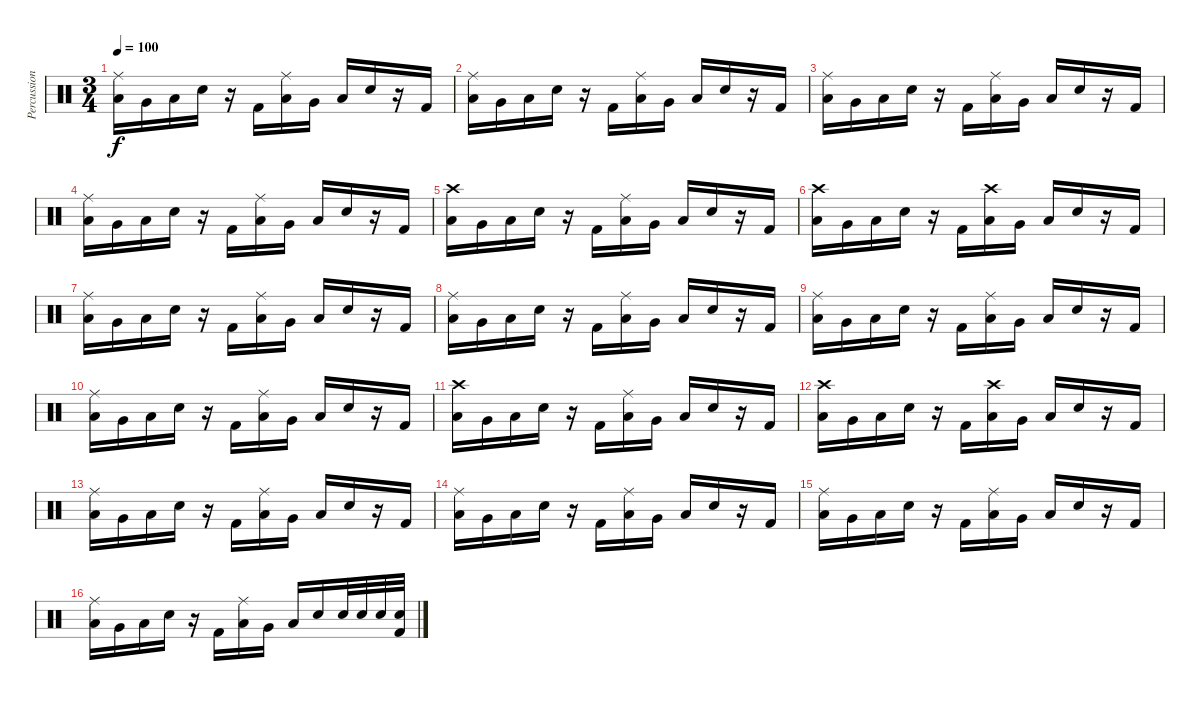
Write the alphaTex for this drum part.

\track ("Percussion" "Percussion") {instrument percussion}
\staff {score}
\articulation defaults
\ts (3 4)
\tempo 100
\clef neutral
\ks c
("Ride (middle)" "Low Floor Tom (hit)").16{dy f} "Very Low Tom (hit)".16 "Low Floor Tom (hit)".16 "Snare (hit) 2".16 r.16 "Kick (hit) 2".16 ("Ride (middle)" "Low Floor Tom (hit)").16 "Very Low Tom (hit)".16 "Low Floor Tom (hit)".16 "Snare (hit) 2".16 r.16 "Kick (hit) 2".16 |
("Ride (middle)" "Low Floor Tom (hit)").16 "Very Low Tom (hit)".16 "Low Floor Tom (hit)".16 "Snare (hit) 2".16 r.16 "Kick (hit) 2".16 ("Ride (middle)" "Low Floor Tom (hit)").16 "Very Low Tom (hit)".16 "Low Floor Tom (hit)".16 "Snare (hit) 2".16 r.16 "Kick (hit) 2".16 |
("Ride (middle)" "Low Floor Tom (hit)").16 "Very Low Tom (hit)".16 "Low Floor Tom (hit)".16 "Snare (hit) 2".16 r.16 "Kick (hit) 2".16 ("Ride (middle)" "Low Floor Tom (hit)").16 "Very Low Tom (hit)".16 "Low Floor Tom (hit)".16 "Snare (hit) 2".16 r.16 "Kick (hit) 2".16 |
("Ride (middle)" "Low Floor Tom (hit)").16 "Very Low Tom (hit)".16 "Low Floor Tom (hit)".16 "Snare (hit) 2".16 r.16 "Kick (hit) 2".16 ("Ride (middle)" "Low Floor Tom (hit)").16 "Very Low Tom (hit)".16 "Low Floor Tom (hit)".16 "Snare (hit) 2".16 r.16 "Kick (hit) 2".16 |
("Crash high (hit)" "Low Floor Tom (hit)").16 "Very Low Tom (hit)".16 "Low Floor Tom (hit)".16 "Snare (hit) 2".16 r.16 "Kick (hit) 2".16 ("Ride (middle)" "Low Floor Tom (hit)").16 "Very Low Tom (hit)".16 "Low Floor Tom (hit)".16 "Snare (hit) 2".16 r.16 "Kick (hit) 2".16 |
("Crash high (hit)" "Low Floor Tom (hit)").16 "Very Low Tom (hit)".16 "Low Floor Tom (hit)".16 "Snare (hit) 2".16 r.16 "Kick (hit) 2".16 ("Crash high (hit)" "Low Floor Tom (hit)").16 "Very Low Tom (hit)".16 "Low Floor Tom (hit)".16 "Snare (hit) 2".16 r.16 "Kick (hit) 2".16 |
("Ride (middle)" "Low Floor Tom (hit)").16 "Very Low Tom (hit)".16 "Low Floor Tom (hit)".16 "Snare (hit) 2".16 r.16 "Kick (hit) 2".16 ("Ride (middle)" "Low Floor Tom (hit)").16 "Very Low Tom (hit)".16 "Low Floor Tom (hit)".16 "Snare (hit) 2".16 r.16 "Kick (hit) 2".16 |
("Ride (middle)" "Low Floor Tom (hit)").16 "Very Low Tom (hit)".16 "Low Floor Tom (hit)".16 "Snare (hit) 2".16 r.16 "Kick (hit) 2".16 ("Ride (middle)" "Low Floor Tom (hit)").16 "Very Low Tom (hit)".16 "Low Floor Tom (hit)".16 "Snare (hit) 2".16 r.16 "Kick (hit) 2".16 |
("Ride (middle)" "Low Floor Tom (hit)").16 "Very Low Tom (hit)".16 "Low Floor Tom (hit)".16 "Snare (hit) 2".16 r.16 "Kick (hit) 2".16 ("Ride (middle)" "Low Floor Tom (hit)").16 "Very Low Tom (hit)".16 "Low Floor Tom (hit)".16 "Snare (hit) 2".16 r.16 "Kick (hit) 2".16 |
("Ride (middle)" "Low Floor Tom (hit)").16 "Very Low Tom (hit)".16 "Low Floor Tom (hit)".16 "Snare (hit) 2".16 r.16 "Kick (hit) 2".16 ("Ride (middle)" "Low Floor Tom (hit)").16 "Very Low Tom (hit)".16 "Low Floor Tom (hit)".16 "Snare (hit) 2".16 r.16 "Kick (hit) 2".16 |
("Crash high (hit)" "Low Floor Tom (hit)").16 "Very Low Tom (hit)".16 "Low Floor Tom (hit)".16 "Snare (hit) 2".16 r.16 "Kick (hit) 2".16 ("Ride (middle)" "Low Floor Tom (hit)").16 "Very Low Tom (hit)".16 "Low Floor Tom (hit)".16 "Snare (hit) 2".16 r.16 "Kick (hit) 2".16 |
("Crash high (hit)" "Low Floor Tom (hit)").16 "Very Low Tom (hit)".16 "Low Floor Tom (hit)".16 "Snare (hit) 2".16 r.16 "Kick (hit) 2".16 ("Crash high (hit)" "Low Floor Tom (hit)").16 "Very Low Tom (hit)".16 "Low Floor Tom (hit)".16 "Snare (hit) 2".16 r.16 "Kick (hit) 2".16 |
("Ride (middle)" "Low Floor Tom (hit)").16 "Very Low Tom (hit)".16 "Low Floor Tom (hit)".16 "Snare (hit) 2".16 r.16 "Kick (hit) 2".16 ("Ride (middle)" "Low Floor Tom (hit)").16 "Very Low Tom (hit)".16 "Low Floor Tom (hit)".16 "Snare (hit) 2".16 r.16 "Kick (hit) 2".16 |
("Ride (middle)" "Low Floor Tom (hit)").16 "Very Low Tom (hit)".16 "Low Floor Tom (hit)".16 "Snare (hit) 2".16 r.16 "Kick (hit) 2".16 ("Ride (middle)" "Low Floor Tom (hit)").16 "Very Low Tom (hit)".16 "Low Floor Tom (hit)".16 "Snare (hit) 2".16 r.16 "Kick (hit) 2".16 |
("Ride (middle)" "Low Floor Tom (hit)").16 "Very Low Tom (hit)".16 "Low Floor Tom (hit)".16 "Snare (hit) 2".16 r.16 "Kick (hit) 2".16 ("Ride (middle)" "Low Floor Tom (hit)").16 "Very Low Tom (hit)".16 "Low Floor Tom (hit)".16 "Snare (hit) 2".16 r.16 "Kick (hit) 2".16 |
("Ride (middle)" "Low Floor Tom (hit)").16 "Very Low Tom (hit)".16 "Low Floor Tom (hit)".16 "Snare (hit) 2".16 r.16 "Kick (hit) 2".16 ("Ride (middle)" "Low Floor Tom (hit)").16 "Very Low Tom (hit)".16 "Low Floor Tom (hit)".16 "Snare (hit) 2".16 "Snare (hit) 2".32 "Snare (hit) 2".32 "Snare (hit) 2".32 ("Snare (hit) 2" "Kick (hit) 2").32
